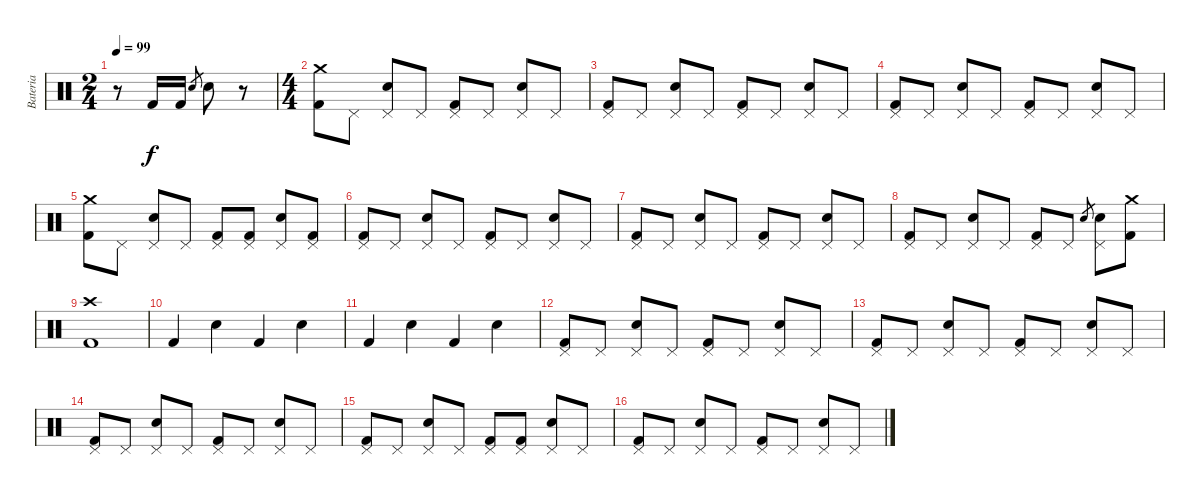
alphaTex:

\track ("Bateria" "Bateria") {instrument percussion}
\staff {score}
\articulation defaults
\ts (2 4)
\tempo 99
\clef neutral
\ks c
r.8{dy f} "Kick (hit) 2".16 "Kick (hit) 2".16 "Electric Snare (hit)".8{gr} "Electric Snare (hit)".8 r.8 |
\ts (4 4)
("Crash medium (hit)" "Kick (hit) 2").8 "Pedal Hi-Hat (hit)".8 ("Pedal Hi-Hat (hit)" "Electric Snare (hit)").8 "Pedal Hi-Hat (hit)".8 ("Pedal Hi-Hat (hit)" "Kick (hit) 2").8 "Pedal Hi-Hat (hit)".8 ("Pedal Hi-Hat (hit)" "Electric Snare (hit)").8 "Pedal Hi-Hat (hit)".8 |
("Pedal Hi-Hat (hit)" "Kick (hit) 2").8 "Pedal Hi-Hat (hit)".8 ("Pedal Hi-Hat (hit)" "Electric Snare (hit)").8 "Pedal Hi-Hat (hit)".8 ("Pedal Hi-Hat (hit)" "Kick (hit) 2").8 "Pedal Hi-Hat (hit)".8 ("Pedal Hi-Hat (hit)" "Electric Snare (hit)").8 "Pedal Hi-Hat (hit)".8 |
("Pedal Hi-Hat (hit)" "Kick (hit) 2").8 "Pedal Hi-Hat (hit)".8 ("Pedal Hi-Hat (hit)" "Electric Snare (hit)").8 "Pedal Hi-Hat (hit)".8 ("Pedal Hi-Hat (hit)" "Kick (hit) 2").8 "Pedal Hi-Hat (hit)".8 ("Pedal Hi-Hat (hit)" "Electric Snare (hit)").8 "Pedal Hi-Hat (hit)".8 |
("Crash medium (hit)" "Kick (hit) 2").8 "Pedal Hi-Hat (hit)".8 ("Pedal Hi-Hat (hit)" "Electric Snare (hit)").8 "Pedal Hi-Hat (hit)".8 ("Pedal Hi-Hat (hit)" "Kick (hit) 2").8 ("Pedal Hi-Hat (hit)" "Kick (hit) 2").8 ("Pedal Hi-Hat (hit)" "Electric Snare (hit)").8 ("Pedal Hi-Hat (hit)" "Kick (hit) 2").8 |
("Pedal Hi-Hat (hit)" "Kick (hit) 2").8 "Pedal Hi-Hat (hit)".8 ("Pedal Hi-Hat (hit)" "Electric Snare (hit)").8 "Pedal Hi-Hat (hit)".8 ("Pedal Hi-Hat (hit)" "Kick (hit) 2").8 "Pedal Hi-Hat (hit)".8 ("Pedal Hi-Hat (hit)" "Electric Snare (hit)").8 "Pedal Hi-Hat (hit)".8 |
("Pedal Hi-Hat (hit)" "Kick (hit) 2").8 "Pedal Hi-Hat (hit)".8 ("Pedal Hi-Hat (hit)" "Electric Snare (hit)").8 "Pedal Hi-Hat (hit)".8 ("Pedal Hi-Hat (hit)" "Kick (hit) 2").8 "Pedal Hi-Hat (hit)".8 ("Pedal Hi-Hat (hit)" "Electric Snare (hit)").8 "Pedal Hi-Hat (hit)".8 |
("Pedal Hi-Hat (hit)" "Kick (hit) 2").8 "Pedal Hi-Hat (hit)".8 ("Pedal Hi-Hat (hit)" "Electric Snare (hit)").8 "Pedal Hi-Hat (hit)".8 ("Pedal Hi-Hat (hit)" "Kick (hit) 2").8 "Pedal Hi-Hat (hit)".8 "Electric Snare (hit)".8{gr} ("Pedal Hi-Hat (hit)" "Electric Snare (hit)").8 ("Crash medium (hit)" "Kick (hit) 2").8 |
("Crash high (hit)" "Kick (hit) 2").1 |
"Kick (hit) 2".4 "Electric Snare (hit)".4 "Kick (hit) 2".4 "Electric Snare (hit)".4 |
"Kick (hit) 2".4 "Electric Snare (hit)".4 "Kick (hit) 2".4 "Electric Snare (hit)".4 |
("Pedal Hi-Hat (hit)" "Kick (hit) 2").8 "Pedal Hi-Hat (hit)".8 ("Pedal Hi-Hat (hit)" "Electric Snare (hit)").8 "Pedal Hi-Hat (hit)".8 ("Pedal Hi-Hat (hit)" "Kick (hit) 2").8 "Pedal Hi-Hat (hit)".8 ("Pedal Hi-Hat (hit)" "Electric Snare (hit)").8 "Pedal Hi-Hat (hit)".8 |
("Pedal Hi-Hat (hit)" "Kick (hit) 2").8 "Pedal Hi-Hat (hit)".8 ("Pedal Hi-Hat (hit)" "Electric Snare (hit)").8 "Pedal Hi-Hat (hit)".8 ("Pedal Hi-Hat (hit)" "Kick (hit) 2").8 "Pedal Hi-Hat (hit)".8 ("Pedal Hi-Hat (hit)" "Electric Snare (hit)").8 "Pedal Hi-Hat (hit)".8 |
("Pedal Hi-Hat (hit)" "Kick (hit) 2").8 "Pedal Hi-Hat (hit)".8 ("Pedal Hi-Hat (hit)" "Electric Snare (hit)").8 "Pedal Hi-Hat (hit)".8 ("Pedal Hi-Hat (hit)" "Kick (hit) 2").8 "Pedal Hi-Hat (hit)".8 ("Pedal Hi-Hat (hit)" "Electric Snare (hit)").8 "Pedal Hi-Hat (hit)".8 |
("Pedal Hi-Hat (hit)" "Kick (hit) 2").8 "Pedal Hi-Hat (hit)".8 ("Pedal Hi-Hat (hit)" "Electric Snare (hit)").8 "Pedal Hi-Hat (hit)".8 ("Pedal Hi-Hat (hit)" "Kick (hit) 2").8 ("Pedal Hi-Hat (hit)" "Kick (hit) 2").8 ("Pedal Hi-Hat (hit)" "Electric Snare (hit)").8 "Pedal Hi-Hat (hit)".8 |
("Pedal Hi-Hat (hit)" "Kick (hit) 2").8 "Pedal Hi-Hat (hit)".8 ("Pedal Hi-Hat (hit)" "Electric Snare (hit)").8 "Pedal Hi-Hat (hit)".8 ("Pedal Hi-Hat (hit)" "Kick (hit) 2").8 "Pedal Hi-Hat (hit)".8 ("Pedal Hi-Hat (hit)" "Electric Snare (hit)").8 "Pedal Hi-Hat (hit)".8
